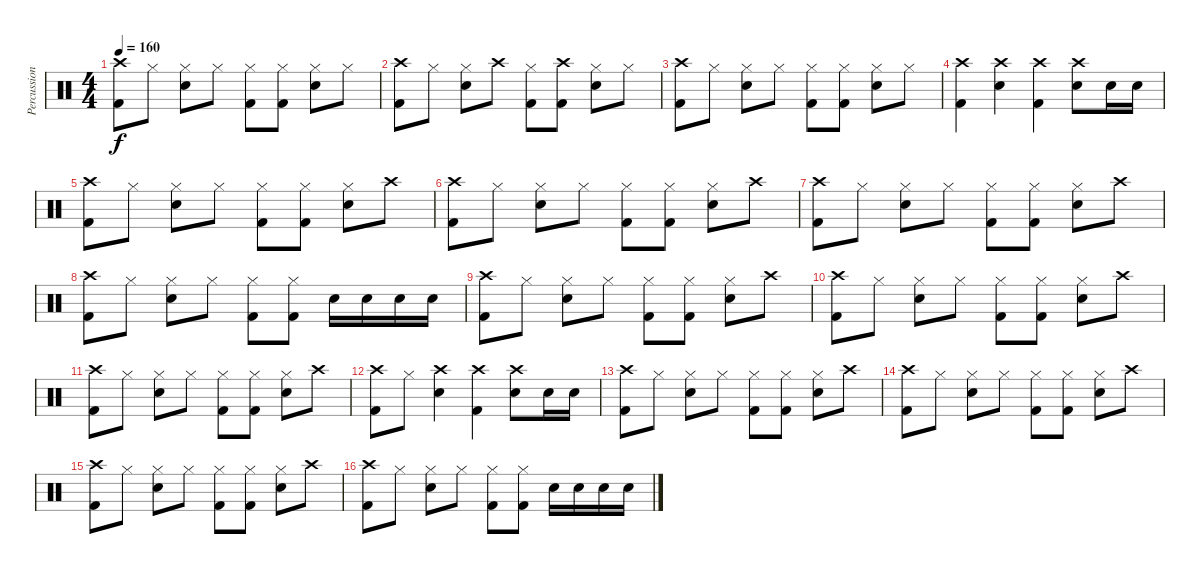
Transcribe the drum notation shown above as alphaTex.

\track ("Percussion" "Percussion") {instrument percussion}
\staff {score}
\articulation defaults
\ts (4 4)
\tempo 160
\clef neutral
\ks c
("Crash high (hit)" "Kick (hit) 2").8{dy f} "Hi-Hat (closed)".8 ("Hi-Hat (closed)" "Snare (hit) 2").8 "Hi-Hat (closed)".8 ("Hi-Hat (closed)" "Kick (hit) 2").8 ("Hi-Hat (closed)" "Kick (hit) 2").8 ("Hi-Hat (closed)" "Snare (hit) 2").8 "Hi-Hat (closed)".8 |
("Crash high (hit)" "Kick (hit) 2").8 "Hi-Hat (closed)".8 ("Hi-Hat (closed)" "Snare (hit) 2").8 "Crash high (hit)".8 ("Hi-Hat (closed)" "Kick (hit) 2").8 ("Crash high (hit)" "Kick (hit) 2").8 ("Hi-Hat (closed)" "Snare (hit) 2").8 "Hi-Hat (closed)".8 |
("Crash high (hit)" "Kick (hit) 2").8 "Hi-Hat (closed)".8 ("Hi-Hat (closed)" "Snare (hit) 2").8 "Hi-Hat (closed)".8 ("Hi-Hat (closed)" "Kick (hit) 2").8 ("Hi-Hat (closed)" "Kick (hit) 2").8 ("Hi-Hat (closed)" "Snare (hit) 2").8 "Hi-Hat (closed)".8 |
("Crash high (hit)" "Kick (hit) 2").4 ("Crash high (hit)" "Snare (hit) 2").4 ("Crash high (hit)" "Kick (hit) 2").4 ("Crash high (hit)" "Snare (hit) 2").8 "Snare (hit) 2".16 "Snare (hit) 2".16 |
("Crash high (hit)" "Kick (hit) 2").8 "Hi-Hat (closed)".8 ("Hi-Hat (closed)" "Snare (hit) 2").8 "Hi-Hat (closed)".8 ("Hi-Hat (closed)" "Kick (hit) 2").8 ("Hi-Hat (closed)" "Kick (hit) 2").8 ("Hi-Hat (closed)" "Snare (hit) 2").8 "Crash high (hit)".8 |
("Crash high (hit)" "Kick (hit) 2").8 "Hi-Hat (closed)".8 ("Hi-Hat (closed)" "Snare (hit) 2").8 "Hi-Hat (closed)".8 ("Hi-Hat (closed)" "Kick (hit) 2").8 ("Hi-Hat (closed)" "Kick (hit) 2").8 ("Hi-Hat (closed)" "Snare (hit) 2").8 "Crash high (hit)".8 |
("Crash high (hit)" "Kick (hit) 2").8 "Hi-Hat (closed)".8 ("Hi-Hat (closed)" "Snare (hit) 2").8 "Hi-Hat (closed)".8 ("Hi-Hat (closed)" "Kick (hit) 2").8 ("Hi-Hat (closed)" "Kick (hit) 2").8 ("Hi-Hat (closed)" "Snare (hit) 2").8 "Crash high (hit)".8 |
("Crash high (hit)" "Kick (hit) 2").8 "Hi-Hat (closed)".8 ("Hi-Hat (closed)" "Snare (hit) 2").8 "Hi-Hat (closed)".8 ("Hi-Hat (closed)" "Kick (hit) 2").8 ("Hi-Hat (closed)" "Kick (hit) 2").8 "Snare (hit) 2".16 "Snare (hit) 2".16 "Snare (hit) 2".16 "Snare (hit) 2".16 |
("Crash high (hit)" "Kick (hit) 2").8 "Hi-Hat (closed)".8 ("Hi-Hat (closed)" "Snare (hit) 2").8 "Hi-Hat (closed)".8 ("Hi-Hat (closed)" "Kick (hit) 2").8 ("Hi-Hat (closed)" "Kick (hit) 2").8 ("Hi-Hat (closed)" "Snare (hit) 2").8 "Crash high (hit)".8 |
("Crash high (hit)" "Kick (hit) 2").8 "Hi-Hat (closed)".8 ("Hi-Hat (closed)" "Snare (hit) 2").8 "Hi-Hat (closed)".8 ("Hi-Hat (closed)" "Kick (hit) 2").8 ("Hi-Hat (closed)" "Kick (hit) 2").8 ("Hi-Hat (closed)" "Snare (hit) 2").8 "Crash high (hit)".8 |
("Crash high (hit)" "Kick (hit) 2").8 "Hi-Hat (closed)".8 ("Hi-Hat (closed)" "Snare (hit) 2").8 "Hi-Hat (closed)".8 ("Hi-Hat (closed)" "Kick (hit) 2").8 ("Hi-Hat (closed)" "Kick (hit) 2").8 ("Hi-Hat (closed)" "Snare (hit) 2").8 "Crash high (hit)".8 |
("Crash high (hit)" "Kick (hit) 2").8 "Hi-Hat (closed)".8 ("Crash high (hit)" "Snare (hit) 2").4 ("Crash high (hit)" "Kick (hit) 2").4 ("Crash high (hit)" "Snare (hit) 2").8 "Snare (hit) 2".16 "Snare (hit) 2".16 |
("Crash high (hit)" "Kick (hit) 2").8 "Hi-Hat (closed)".8 ("Hi-Hat (closed)" "Snare (hit) 2").8 "Hi-Hat (closed)".8 ("Hi-Hat (closed)" "Kick (hit) 2").8 ("Hi-Hat (closed)" "Kick (hit) 2").8 ("Hi-Hat (closed)" "Snare (hit) 2").8 "Crash high (hit)".8 |
("Crash high (hit)" "Kick (hit) 2").8 "Hi-Hat (closed)".8 ("Hi-Hat (closed)" "Snare (hit) 2").8 "Hi-Hat (closed)".8 ("Hi-Hat (closed)" "Kick (hit) 2").8 ("Hi-Hat (closed)" "Kick (hit) 2").8 ("Hi-Hat (closed)" "Snare (hit) 2").8 "Crash high (hit)".8 |
("Crash high (hit)" "Kick (hit) 2").8 "Hi-Hat (closed)".8 ("Hi-Hat (closed)" "Snare (hit) 2").8 "Hi-Hat (closed)".8 ("Hi-Hat (closed)" "Kick (hit) 2").8 ("Hi-Hat (closed)" "Kick (hit) 2").8 ("Hi-Hat (closed)" "Snare (hit) 2").8 "Crash high (hit)".8 |
("Crash high (hit)" "Kick (hit) 2").8 "Hi-Hat (closed)".8 ("Hi-Hat (closed)" "Snare (hit) 2").8 "Hi-Hat (closed)".8 ("Hi-Hat (closed)" "Kick (hit) 2").8 ("Hi-Hat (closed)" "Kick (hit) 2").8 "Snare (hit) 2".16 "Snare (hit) 2".16 "Snare (hit) 2".16 "Snare (hit) 2".16
